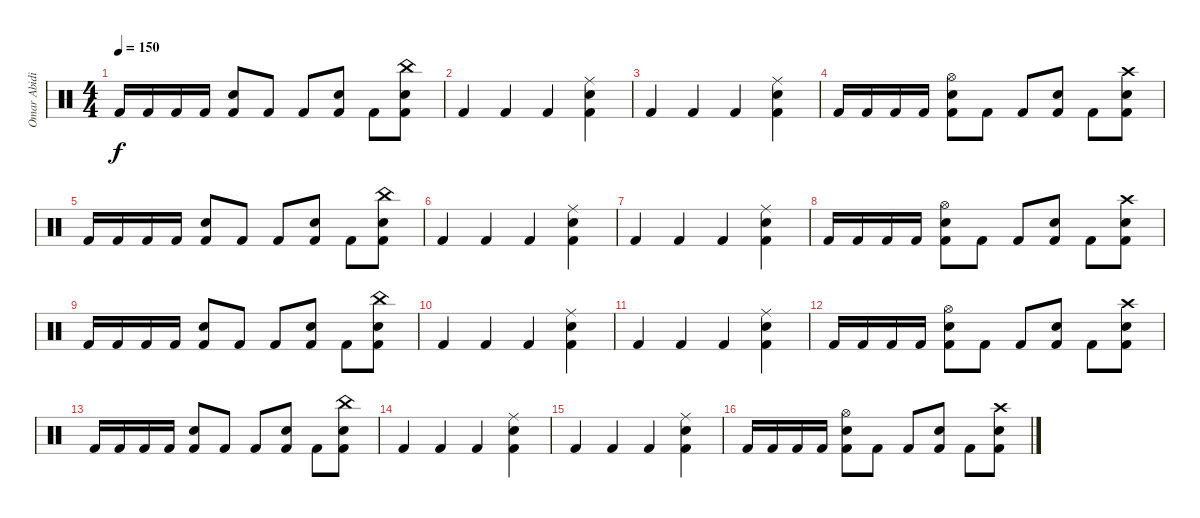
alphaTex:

\track ("Omar Abidi" "Omar Abidi") {instrument percussion}
\staff {score}
\articulation defaults
\ts (4 4)
\tempo 150
\clef neutral
\ks c "Kick (hit) 2".16{dy f} "Kick (hit) 2".16 "Kick (hit) 2".16 "Kick (hit) 2".16
("Snare (hit) 2" "Kick (hit) 2").8 "Kick (hit) 2".8 "Kick (hit) 2".8 ("Snare (hit) 2" "Kick (hit) 2").8 "Kick (hit) 2".8 ("China (hit)" "Snare (hit) 2" "Kick (hit) 2").8 |
"Kick (hit) 2".4 "Kick (hit) 2".4 "Kick (hit) 2".4 ("Snare (hit) 2" "Ride (middle)" "Kick (hit) 2").4 |
"Kick (hit) 2".4 "Kick (hit) 2".4 "Kick (hit) 2".4 ("Snare (hit) 2" "Ride (middle)" "Kick (hit) 2").4 |
"Kick (hit) 2".16 "Kick (hit) 2".16 "Kick (hit) 2".16 "Kick (hit) 2".16 ("Hi-Hat (open)" "Snare (hit) 2" "Kick (hit) 2").8 "Kick (hit) 2".8 "Kick (hit) 2".8 ("Snare (hit) 2" "Kick (hit) 2").8 "Kick (hit) 2".8 ("Crash high (hit)" "Snare (hit) 2" "Kick (hit) 2").8 |
"Kick (hit) 2".16 "Kick (hit) 2".16 "Kick (hit) 2".16 "Kick (hit) 2".16 ("Snare (hit) 2" "Kick (hit) 2").8 "Kick (hit) 2".8 "Kick (hit) 2".8 ("Snare (hit) 2" "Kick (hit) 2").8 "Kick (hit) 2".8 ("China (hit)" "Snare (hit) 2" "Kick (hit) 2").8 |
"Kick (hit) 2".4 "Kick (hit) 2".4 "Kick (hit) 2".4 ("Snare (hit) 2" "Ride (middle)" "Kick (hit) 2").4 |
"Kick (hit) 2".4 "Kick (hit) 2".4 "Kick (hit) 2".4 ("Snare (hit) 2" "Ride (middle)" "Kick (hit) 2").4 |
"Kick (hit) 2".16 "Kick (hit) 2".16 "Kick (hit) 2".16 "Kick (hit) 2".16 ("Hi-Hat (open)" "Snare (hit) 2" "Kick (hit) 2").8 "Kick (hit) 2".8 "Kick (hit) 2".8 ("Snare (hit) 2" "Kick (hit) 2").8 "Kick (hit) 2".8 ("Crash high (hit)" "Snare (hit) 2" "Kick (hit) 2").8 |
"Kick (hit) 2".16 "Kick (hit) 2".16 "Kick (hit) 2".16 "Kick (hit) 2".16 ("Snare (hit) 2" "Kick (hit) 2").8 "Kick (hit) 2".8 "Kick (hit) 2".8 ("Snare (hit) 2" "Kick (hit) 2").8 "Kick (hit) 2".8 ("China (hit)" "Snare (hit) 2" "Kick (hit) 2").8 |
"Kick (hit) 2".4 "Kick (hit) 2".4 "Kick (hit) 2".4 ("Snare (hit) 2" "Ride (middle)" "Kick (hit) 2").4 |
"Kick (hit) 2".4 "Kick (hit) 2".4 "Kick (hit) 2".4 ("Snare (hit) 2" "Ride (middle)" "Kick (hit) 2").4 |
"Kick (hit) 2".16 "Kick (hit) 2".16 "Kick (hit) 2".16 "Kick (hit) 2".16 ("Hi-Hat (open)" "Snare (hit) 2" "Kick (hit) 2").8 "Kick (hit) 2".8 "Kick (hit) 2".8 ("Snare (hit) 2" "Kick (hit) 2").8 "Kick (hit) 2".8 ("Crash high (hit)" "Snare (hit) 2" "Kick (hit) 2").8 |
"Kick (hit) 2".16 "Kick (hit) 2".16 "Kick (hit) 2".16 "Kick (hit) 2".16 ("Snare (hit) 2" "Kick (hit) 2").8 "Kick (hit) 2".8 "Kick (hit) 2".8 ("Snare (hit) 2" "Kick (hit) 2").8 "Kick (hit) 2".8 ("China (hit)" "Snare (hit) 2" "Kick (hit) 2").8 |
"Kick (hit) 2".4 "Kick (hit) 2".4 "Kick (hit) 2".4 ("Snare (hit) 2" "Ride (middle)" "Kick (hit) 2").4 |
"Kick (hit) 2".4 "Kick (hit) 2".4 "Kick (hit) 2".4 ("Snare (hit) 2" "Ride (middle)" "Kick (hit) 2").4 |
"Kick (hit) 2".16 "Kick (hit) 2".16 "Kick (hit) 2".16 "Kick (hit) 2".16 ("Hi-Hat (open)" "Snare (hit) 2" "Kick (hit) 2").8 "Kick (hit) 2".8 "Kick (hit) 2".8 ("Snare (hit) 2" "Kick (hit) 2").8 "Kick (hit) 2".8 ("Crash high (hit)" "Snare (hit) 2" "Kick (hit) 2").8
